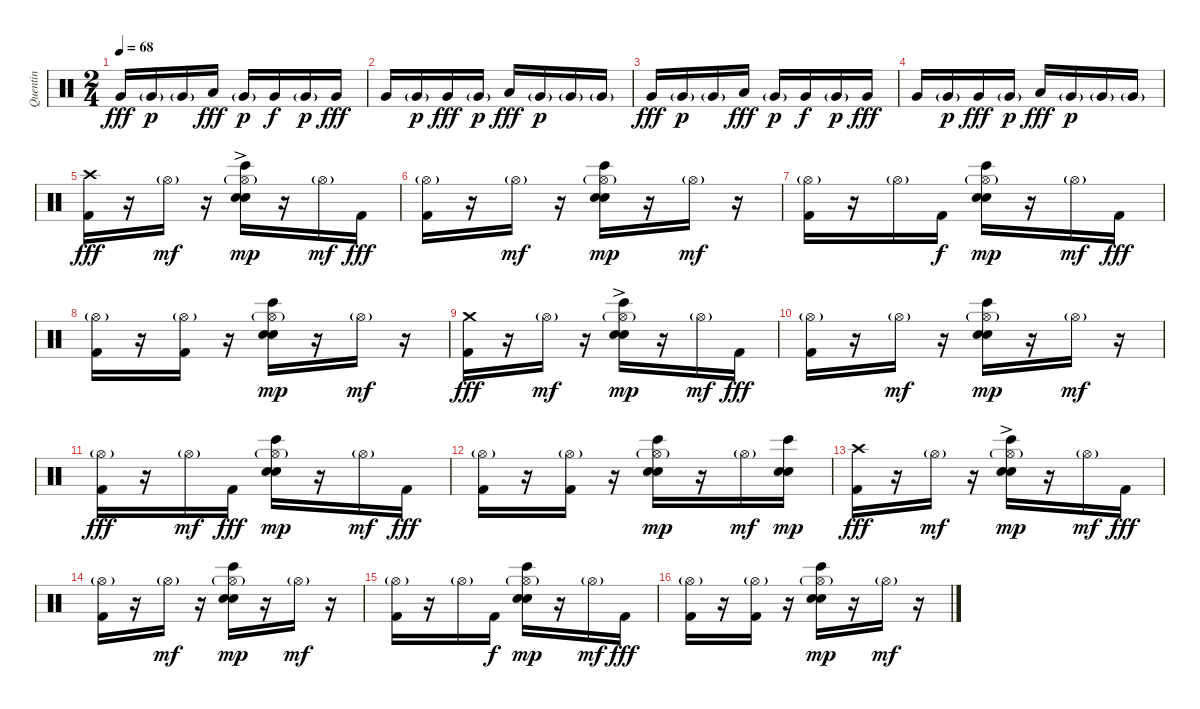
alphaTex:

\track ("Quentin" "Quentin") {instrument percussion}
\staff {score}
\articulation defaults
\ts (2 4)
\tempo 68
\clef neutral
\ks c "Very Low Tom (hit)".16{dy fff} "Very Low Tom (hit)"{g}.16{dy p} "Very Low Tom (hit)"{g}.16 "Low Tom (hit)".16{dy fff} "Very Low Tom (hit)"{g}.16{dy p} "Very Low Tom (hit)".16{dy f} "Very Low Tom (hit)"{g}.16{dy p} "Very Low Tom (hit)".16{dy fff}
|
"Very Low Tom (hit)".16 "Very Low Tom (hit)"{g}.16{dy p} "Very Low Tom (hit)".16{dy fff} "Very Low Tom (hit)"{g}.16{dy p} "Low Tom (hit)".16{dy fff} "Very Low Tom (hit)"{g}.16{dy p} "Very Low Tom (hit)"{g}.16 "Very Low Tom (hit)"{g}.16 |
"Very Low Tom (hit)".16{dy fff} "Very Low Tom (hit)"{g}.16{dy p} "Very Low Tom (hit)"{g}.16 "Low Tom (hit)".16{dy fff} "Very Low Tom (hit)"{g}.16{dy p} "Very Low Tom (hit)".16{dy f} "Very Low Tom (hit)"{g}.16{dy p} "Very Low Tom (hit)".16{dy fff} |
"Very Low Tom (hit)".16 "Very Low Tom (hit)"{g}.16{dy p} "Very Low Tom (hit)".16{dy fff} "Very Low Tom (hit)"{g}.16{dy p} "Low Tom (hit)".16{dy fff} "Very Low Tom (hit)"{g}.16{dy p} "Very Low Tom (hit)"{g}.16 "Very Low Tom (hit)"{g}.16 |
("Crash high (hit)" "Kick (hit) 2").16{dy fff volume 9} r.16 "Hi-Hat (open)"{g}.16{dy mf} r.16 ("Hi-Hat (open)"{g} "Electric Snare (hit)"{ac} "Snare (hit) 2" "Bongo High (hit)").16{dy mp} r.16 "Hi-Hat (open)"{g}.16{dy mf} "Kick (hit) 2".16{dy fff} |
("Hi-Hat (open)"{g} "Kick (hit) 2").16 r.16 "Hi-Hat (open)"{g}.16{dy mf} r.16 ("Hi-Hat (open)"{g} "Electric Snare (hit)" "Snare (hit) 2" "Bongo High (hit)").16{dy mp} r.16 "Hi-Hat (open)"{g}.16{dy mf} r.16 |
("Hi-Hat (open)"{g} "Kick (hit) 2").16 r.16 "Hi-Hat (open)"{g}.16 "Kick (hit) 2".16{dy f} ("Hi-Hat (open)"{g} "Electric Snare (hit)" "Snare (hit) 2" "Bongo High (hit)").16{dy mp} r.16 "Hi-Hat (open)"{g}.16{dy mf} "Kick (hit) 2".16{dy fff} |
("Hi-Hat (open)"{g} "Kick (hit) 2").16 r.16 ("Hi-Hat (open)"{g} "Kick (hit) 2").16 r.16 ("Hi-Hat (open)"{g} "Electric Snare (hit)" "Snare (hit) 2" "Bongo High (hit)").16{dy mp} r.16 "Hi-Hat (open)"{g}.16{dy mf} r.16 |
("Crash medium (hit)" "Kick (hit) 2").16{dy fff} r.16 "Hi-Hat (open)"{g}.16{dy mf} r.16 ("Hi-Hat (open)"{g} "Electric Snare (hit)"{ac} "Snare (hit) 2" "Bongo High (hit)").16{dy mp} r.16 "Hi-Hat (open)"{g}.16{dy mf} "Kick (hit) 2".16{dy fff} |
("Hi-Hat (open)"{g} "Kick (hit) 2").16 r.16 "Hi-Hat (open)"{g}.16{dy mf} r.16 ("Hi-Hat (open)"{g} "Electric Snare (hit)" "Snare (hit) 2" "Bongo High (hit)").16{dy mp} r.16 "Hi-Hat (open)"{g}.16{dy mf} r.16 |
("Hi-Hat (open)"{g} "Kick (hit) 2").16{dy fff} r.16 "Hi-Hat (open)"{g}.16{dy mf} "Kick (hit) 2".16{dy fff} ("Hi-Hat (open)"{g} "Electric Snare (hit)" "Snare (hit) 2" "Bongo High (hit)").16{dy mp} r.16 "Hi-Hat (open)"{g}.16{dy mf} "Kick (hit) 2".16{dy fff} |
("Hi-Hat (open)"{g} "Kick (hit) 2").16 r.16 ("Hi-Hat (open)"{g} "Kick (hit) 2").16 r.16 ("Hi-Hat (open)"{g} "Electric Snare (hit)" "Snare (hit) 2" "Bongo High (hit)").16{dy mp} r.16 "Hi-Hat (open)"{g}.16{dy mf} ("Electric Snare (hit)" "Snare (hit) 2" "Bongo High (hit)").16{dy mp} |
("Crash high (hit)" "Kick (hit) 2").16{dy fff volume 9} r.16 "Hi-Hat (open)"{g}.16{dy mf} r.16 ("Hi-Hat (open)"{g} "Electric Snare (hit)"{ac} "Snare (hit) 2" "Bongo High (hit)").16{dy mp} r.16 "Hi-Hat (open)"{g}.16{dy mf} "Kick (hit) 2".16{dy fff} |
("Hi-Hat (open)"{g} "Kick (hit) 2").16 r.16 "Hi-Hat (open)"{g}.16{dy mf} r.16 ("Hi-Hat (open)"{g} "Electric Snare (hit)" "Snare (hit) 2" "Bongo High (hit)").16{dy mp} r.16 "Hi-Hat (open)"{g}.16{dy mf} r.16 |
("Hi-Hat (open)"{g} "Kick (hit) 2").16 r.16 "Hi-Hat (open)"{g}.16 "Kick (hit) 2".16{dy f} ("Hi-Hat (open)"{g} "Electric Snare (hit)" "Snare (hit) 2" "Bongo High (hit)").16{dy mp} r.16 "Hi-Hat (open)"{g}.16{dy mf} "Kick (hit) 2".16{dy fff} |
("Hi-Hat (open)"{g} "Kick (hit) 2").16 r.16 ("Hi-Hat (open)"{g} "Kick (hit) 2").16 r.16 ("Hi-Hat (open)"{g} "Electric Snare (hit)" "Snare (hit) 2" "Bongo High (hit)").16{dy mp} r.16 "Hi-Hat (open)"{g}.16{dy mf} r.16
